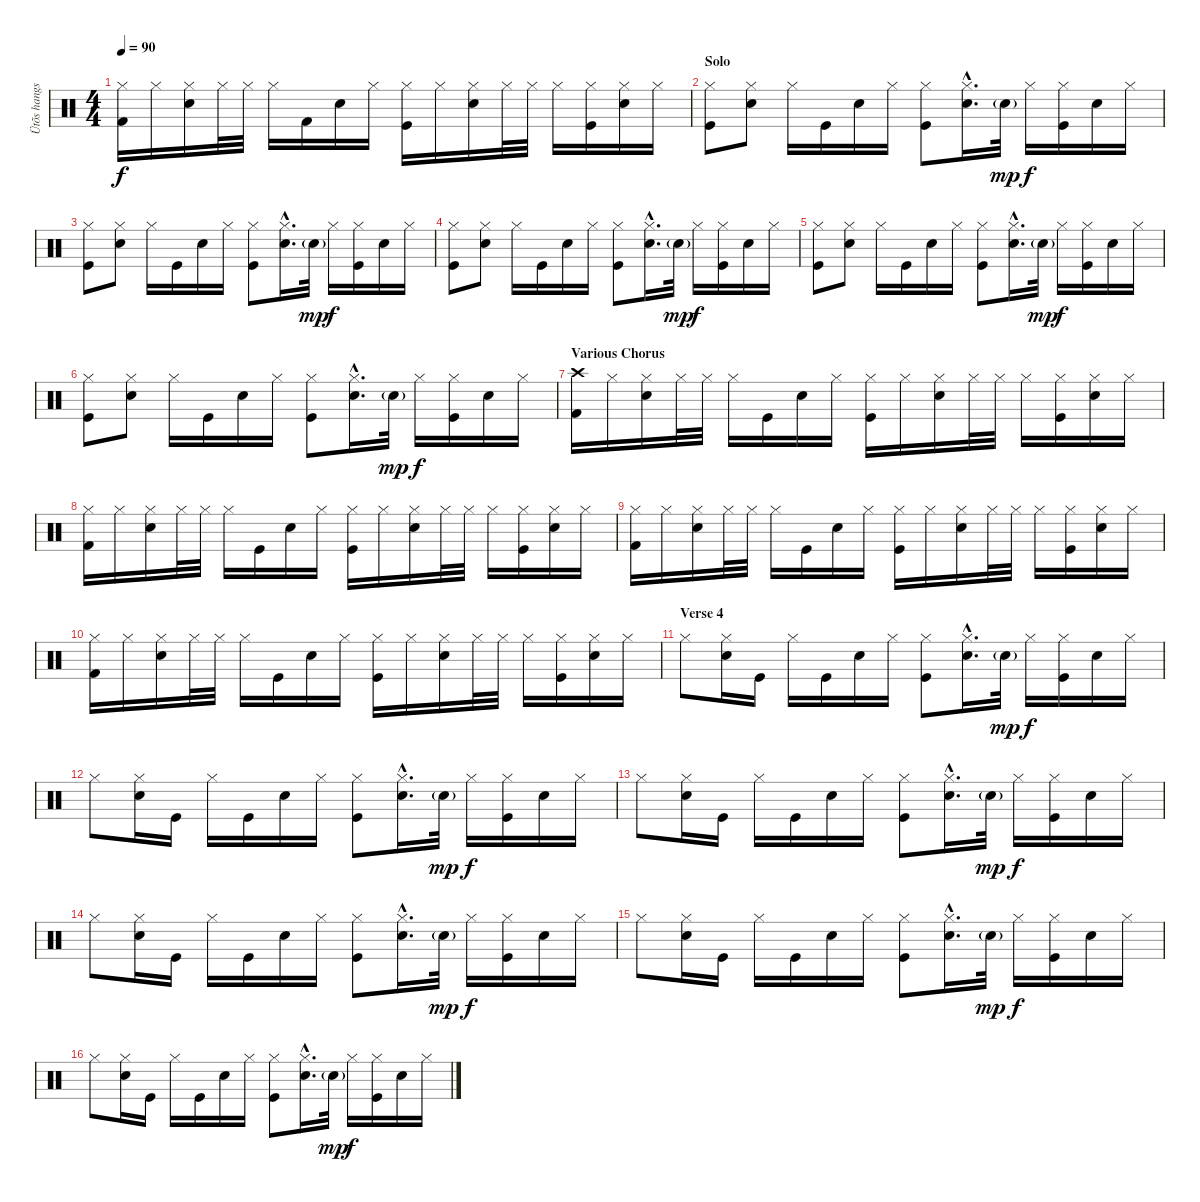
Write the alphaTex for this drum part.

\track ("Ütõs hangszer" "Ütõs hangs") {instrument percussion}
\staff {score}
\articulation defaults
\ts (4 4)
\tempo 90
\clef neutral
\ks c
("Hi-Hat (closed)" "Kick (hit) 2").16{dy f} "Hi-Hat (closed)".16 ("Hi-Hat (closed)" "Electric Snare (hit)").16 "Hi-Hat (closed)".32 "Hi-Hat (closed)".32 "Hi-Hat (closed)".16 "Kick (hit) 2".16 "Electric Snare (hit)".16 "Hi-Hat (closed)".16 ("Hi-Hat (closed)" "Kick (hit)").16 "Hi-Hat (closed)".16 ("Hi-Hat (closed)" "Electric Snare (hit)").16 "Hi-Hat (closed)".32 "Hi-Hat (closed)".32 "Hi-Hat (closed)".16 ("Hi-Hat (closed)" "Kick (hit)").16 ("Hi-Hat (closed)" "Electric Snare (hit)").16 "Hi-Hat (closed)".16 |
\section ("" "Solo")
("Hi-Hat (closed)" "Kick (hit)").8 ("Hi-Hat (closed)" "Electric Snare (hit)").8 "Hi-Hat (closed)".16 "Kick (hit)".16 "Electric Snare (hit)".16 "Hi-Hat (closed)".16 ("Hi-Hat (closed)" "Kick (hit)").8 ("Hi-Hat (closed)"{hac} "Electric Snare (hit)"{hac}).16{d} "Electric Snare (hit)"{g}.32{dy mp} "Hi-Hat (closed)".16{dy f} ("Hi-Hat (closed)" "Kick (hit)").16 "Electric Snare (hit)".16 "Hi-Hat (closed)".16 |
("Hi-Hat (closed)" "Kick (hit)").8 ("Hi-Hat (closed)" "Electric Snare (hit)").8 "Hi-Hat (closed)".16 "Kick (hit)".16 "Electric Snare (hit)".16 "Hi-Hat (closed)".16 ("Hi-Hat (closed)" "Kick (hit)").8 ("Hi-Hat (closed)"{hac} "Electric Snare (hit)"{hac}).16{d} "Electric Snare (hit)"{g}.32{dy mp} "Hi-Hat (closed)".16{dy f} ("Hi-Hat (closed)" "Kick (hit)").16 "Electric Snare (hit)".16 "Hi-Hat (closed)".16 |
("Hi-Hat (closed)" "Kick (hit)").8 ("Hi-Hat (closed)" "Electric Snare (hit)").8 "Hi-Hat (closed)".16 "Kick (hit)".16 "Electric Snare (hit)".16 "Hi-Hat (closed)".16 ("Hi-Hat (closed)" "Kick (hit)").8 ("Hi-Hat (closed)"{hac} "Electric Snare (hit)"{hac}).16{d} "Electric Snare (hit)"{g}.32{dy mp} "Hi-Hat (closed)".16{dy f} ("Hi-Hat (closed)" "Kick (hit)").16 "Electric Snare (hit)".16 "Hi-Hat (closed)".16 |
("Hi-Hat (closed)" "Kick (hit)").8 ("Hi-Hat (closed)" "Electric Snare (hit)").8 "Hi-Hat (closed)".16 "Kick (hit)".16 "Electric Snare (hit)".16 "Hi-Hat (closed)".16 ("Hi-Hat (closed)" "Kick (hit)").8 ("Hi-Hat (closed)"{hac} "Electric Snare (hit)"{hac}).16{d} "Electric Snare (hit)"{g}.32{dy mp} "Hi-Hat (closed)".16{dy f} ("Hi-Hat (closed)" "Kick (hit)").16 "Electric Snare (hit)".16 "Hi-Hat (closed)".16 |
("Hi-Hat (closed)" "Kick (hit)").8 ("Hi-Hat (closed)" "Electric Snare (hit)").8 "Hi-Hat (closed)".16 "Kick (hit)".16 "Electric Snare (hit)".16 "Hi-Hat (closed)".16 ("Hi-Hat (closed)" "Kick (hit)").8 ("Hi-Hat (closed)"{hac} "Electric Snare (hit)"{hac}).16{d} "Electric Snare (hit)"{g}.32{dy mp} "Hi-Hat (closed)".16{dy f} ("Hi-Hat (closed)" "Kick (hit)").16 "Electric Snare (hit)".16 "Hi-Hat (closed)".16 |
\section ("" "Various Chorus")
("Crash high (hit)" "Kick (hit) 2").16 "Hi-Hat (closed)".16 ("Hi-Hat (closed)" "Electric Snare (hit)").16 "Hi-Hat (closed)".32 "Hi-Hat (closed)".32 "Hi-Hat (closed)".16 "Kick (hit)".16 "Electric Snare (hit)".16 "Hi-Hat (closed)".16 ("Hi-Hat (closed)" "Kick (hit)").16 "Hi-Hat (closed)".16 ("Hi-Hat (closed)" "Electric Snare (hit)").16 "Hi-Hat (closed)".32 "Hi-Hat (closed)".32 "Hi-Hat (closed)".16 ("Hi-Hat (closed)" "Kick (hit)").16 ("Hi-Hat (closed)" "Electric Snare (hit)").16 "Hi-Hat (closed)".16 |
("Hi-Hat (closed)" "Kick (hit) 2").16 "Hi-Hat (closed)".16 ("Hi-Hat (closed)" "Electric Snare (hit)").16 "Hi-Hat (closed)".32 "Hi-Hat (closed)".32 "Hi-Hat (closed)".16 "Kick (hit)".16 "Electric Snare (hit)".16 "Hi-Hat (closed)".16 ("Hi-Hat (closed)" "Kick (hit)").16 "Hi-Hat (closed)".16 ("Hi-Hat (closed)" "Electric Snare (hit)").16 "Hi-Hat (closed)".32 "Hi-Hat (closed)".32 "Hi-Hat (closed)".16 ("Hi-Hat (closed)" "Kick (hit)").16 ("Hi-Hat (closed)" "Electric Snare (hit)").16 "Hi-Hat (closed)".16 |
("Hi-Hat (closed)" "Kick (hit) 2").16 "Hi-Hat (closed)".16 ("Hi-Hat (closed)" "Electric Snare (hit)").16 "Hi-Hat (closed)".32 "Hi-Hat (closed)".32 "Hi-Hat (closed)".16 "Kick (hit)".16 "Electric Snare (hit)".16 "Hi-Hat (closed)".16 ("Hi-Hat (closed)" "Kick (hit)").16 "Hi-Hat (closed)".16 ("Hi-Hat (closed)" "Electric Snare (hit)").16 "Hi-Hat (closed)".32 "Hi-Hat (closed)".32 "Hi-Hat (closed)".16 ("Hi-Hat (closed)" "Kick (hit)").16 ("Hi-Hat (closed)" "Electric Snare (hit)").16 "Hi-Hat (closed)".16 |
("Hi-Hat (closed)" "Kick (hit) 2").16 "Hi-Hat (closed)".16 ("Hi-Hat (closed)" "Electric Snare (hit)").16 "Hi-Hat (closed)".32 "Hi-Hat (closed)".32 "Hi-Hat (closed)".16 "Kick (hit)".16 "Electric Snare (hit)".16 "Hi-Hat (closed)".16 ("Hi-Hat (closed)" "Kick (hit)").16 "Hi-Hat (closed)".16 ("Hi-Hat (closed)" "Electric Snare (hit)").16 "Hi-Hat (closed)".32 "Hi-Hat (closed)".32 "Hi-Hat (closed)".16 ("Hi-Hat (closed)" "Kick (hit)").16 ("Hi-Hat (closed)" "Electric Snare (hit)").16 "Hi-Hat (closed)".16 |
\section ("" "Verse 4")
"Hi-Hat (closed)".8 ("Hi-Hat (closed)" "Electric Snare (hit)").16 "Kick (hit)".16 "Hi-Hat (closed)".16 "Kick (hit)".16 "Electric Snare (hit)".16 "Hi-Hat (closed)".16 ("Hi-Hat (closed)" "Kick (hit)").8 ("Hi-Hat (closed)"{hac} "Electric Snare (hit)"{hac}).16{d} "Electric Snare (hit)"{g}.32{dy mp} "Hi-Hat (closed)".16{dy f} ("Hi-Hat (closed)" "Kick (hit)").16 "Electric Snare (hit)".16 "Hi-Hat (closed)".16 |
"Hi-Hat (closed)".8 ("Hi-Hat (closed)" "Electric Snare (hit)").16 "Kick (hit)".16 "Hi-Hat (closed)".16 "Kick (hit)".16 "Electric Snare (hit)".16 "Hi-Hat (closed)".16 ("Hi-Hat (closed)" "Kick (hit)").8 ("Hi-Hat (closed)"{hac} "Electric Snare (hit)"{hac}).16{d} "Electric Snare (hit)"{g}.32{dy mp} "Hi-Hat (closed)".16{dy f} ("Hi-Hat (closed)" "Kick (hit)").16 "Electric Snare (hit)".16 "Hi-Hat (closed)".16 |
"Hi-Hat (closed)".8 ("Hi-Hat (closed)" "Electric Snare (hit)").16 "Kick (hit)".16 "Hi-Hat (closed)".16 "Kick (hit)".16 "Electric Snare (hit)".16 "Hi-Hat (closed)".16 ("Hi-Hat (closed)" "Kick (hit)").8 ("Hi-Hat (closed)"{hac} "Electric Snare (hit)"{hac}).16{d} "Electric Snare (hit)"{g}.32{dy mp} "Hi-Hat (closed)".16{dy f} ("Hi-Hat (closed)" "Kick (hit)").16 "Electric Snare (hit)".16 "Hi-Hat (closed)".16 |
"Hi-Hat (closed)".8 ("Hi-Hat (closed)" "Electric Snare (hit)").16 "Kick (hit)".16 "Hi-Hat (closed)".16 "Kick (hit)".16 "Electric Snare (hit)".16 "Hi-Hat (closed)".16 ("Hi-Hat (closed)" "Kick (hit)").8 ("Hi-Hat (closed)"{hac} "Electric Snare (hit)"{hac}).16{d} "Electric Snare (hit)"{g}.32{dy mp} "Hi-Hat (closed)".16{dy f} ("Hi-Hat (closed)" "Kick (hit)").16 "Electric Snare (hit)".16 "Hi-Hat (closed)".16 |
"Hi-Hat (closed)".8 ("Hi-Hat (closed)" "Electric Snare (hit)").16 "Kick (hit)".16 "Hi-Hat (closed)".16 "Kick (hit)".16 "Electric Snare (hit)".16 "Hi-Hat (closed)".16 ("Hi-Hat (closed)" "Kick (hit)").8 ("Hi-Hat (closed)"{hac} "Electric Snare (hit)"{hac}).16{d} "Electric Snare (hit)"{g}.32{dy mp} "Hi-Hat (closed)".16{dy f} ("Hi-Hat (closed)" "Kick (hit)").16 "Electric Snare (hit)".16 "Hi-Hat (closed)".16 |
"Hi-Hat (closed)".8 ("Hi-Hat (closed)" "Electric Snare (hit)").16 "Kick (hit)".16 "Hi-Hat (closed)".16 "Kick (hit)".16 "Electric Snare (hit)".16 "Hi-Hat (closed)".16 ("Hi-Hat (closed)" "Kick (hit)").8 ("Hi-Hat (closed)"{hac} "Electric Snare (hit)"{hac}).16{d} "Electric Snare (hit)"{g}.32{dy mp} "Hi-Hat (closed)".16{dy f} ("Hi-Hat (closed)" "Kick (hit)").16 "Electric Snare (hit)".16 "Hi-Hat (closed)".16
